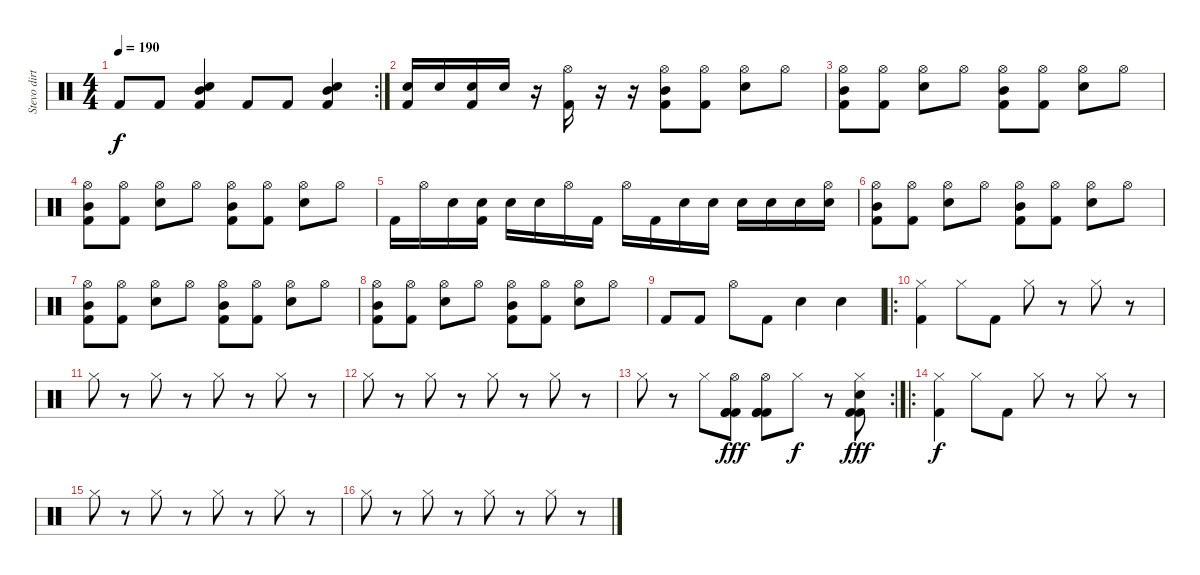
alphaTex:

\track ("Stevo dirty poo (drummer)" "Stevo dirt") {instrument percussion}
\staff {score}
\articulation defaults
\rc 2
\ts (4 4)
\tempo 190
\clef neutral
\ks c "Kick (hit) 2".8{dy f} "Kick (hit) 2".8
("Mid Tom (hit)" "Snare (hit) 2" "Kick (hit) 2").4 "Kick (hit) 2".8 "Kick (hit) 2".8 ("Mid Tom (hit)" "Snare (hit) 2" "Kick (hit) 2").4 |
("Snare (hit) 2" "Kick (hit) 2").16 "Snare (hit) 2".16 ("Snare (hit) 2" "Kick (hit) 2").16 "Snare (hit) 2".16 r.16 ("Hi-Hat (open)" "Kick (hit) 2").16 r.16 r.16 ("Mid Tom (hit)" "Hi-Hat (open)" "Kick (hit) 2").8 ("Hi-Hat (open)" "Kick (hit) 2").8 ("Snare (hit) 2" "Hi-Hat (open)").8 "Hi-Hat (open)".8 |
("Mid Tom (hit)" "Hi-Hat (open)" "Kick (hit) 2").8 ("Hi-Hat (open)" "Kick (hit) 2").8 ("Snare (hit) 2" "Hi-Hat (open)").8 "Hi-Hat (open)".8 ("Mid Tom (hit)" "Hi-Hat (open)" "Kick (hit) 2").8 ("Hi-Hat (open)" "Kick (hit) 2").8 ("Snare (hit) 2" "Hi-Hat (open)").8 "Hi-Hat (open)".8 |
("Mid Tom (hit)" "Hi-Hat (open)" "Kick (hit) 2").8 ("Hi-Hat (open)" "Kick (hit) 2").8 ("Snare (hit) 2" "Hi-Hat (open)").8 "Hi-Hat (open)".8 ("Mid Tom (hit)" "Hi-Hat (open)" "Kick (hit) 2").8 ("Hi-Hat (open)" "Kick (hit) 2").8 ("Snare (hit) 2" "Hi-Hat (open)").8 "Hi-Hat (open)".8 |
"Kick (hit) 2".16 "Hi-Hat (open)".16 "Snare (hit) 2".16 ("Snare (hit) 2" "Kick (hit) 2").16 "Snare (hit) 2".16 "Snare (hit) 2".16 "Hi-Hat (open)".16 "Kick (hit) 2".16 "Hi-Hat (open)".16 "Kick (hit) 2".16 "Snare (hit) 2".16 "Snare (hit) 2".16 "Snare (hit) 2".16 "Snare (hit) 2".16 "Snare (hit) 2".16 ("Snare (hit) 2" "Hi-Hat (open)").16 |
("Mid Tom (hit)" "Hi-Hat (open)" "Kick (hit) 2").8 ("Hi-Hat (open)" "Kick (hit) 2").8 ("Snare (hit) 2" "Hi-Hat (open)").8 "Hi-Hat (open)".8 ("Mid Tom (hit)" "Hi-Hat (open)" "Kick (hit) 2").8 ("Hi-Hat (open)" "Kick (hit) 2").8 ("Snare (hit) 2" "Hi-Hat (open)").8 "Hi-Hat (open)".8 |
("Mid Tom (hit)" "Hi-Hat (open)" "Kick (hit) 2").8 ("Hi-Hat (open)" "Kick (hit) 2").8 ("Snare (hit) 2" "Hi-Hat (open)").8 "Hi-Hat (open)".8 ("Mid Tom (hit)" "Hi-Hat (open)" "Kick (hit) 2").8 ("Hi-Hat (open)" "Kick (hit) 2").8 ("Snare (hit) 2" "Hi-Hat (open)").8 "Hi-Hat (open)".8 |
("Mid Tom (hit)" "Hi-Hat (open)" "Kick (hit) 2").8 ("Hi-Hat (open)" "Kick (hit) 2").8 ("Snare (hit) 2" "Hi-Hat (open)").8 "Hi-Hat (open)".8 ("Mid Tom (hit)" "Hi-Hat (open)" "Kick (hit) 2").8 ("Hi-Hat (open)" "Kick (hit) 2").8 ("Snare (hit) 2" "Hi-Hat (open)").8 "Hi-Hat (open)".8 |
"Kick (hit) 2".8 "Kick (hit) 2".8 "Hi-Hat (open)".8 "Kick (hit) 2".8 "Snare (hit) 2".4 "Snare (hit) 2".4 |
\ro
("Hi-Hat (closed)" "Kick (hit) 2").4 "Hi-Hat (closed)".8 "Kick (hit) 2".8 "Hi-Hat (closed)".8 r.8 "Hi-Hat (closed)".8 r.8 |
"Hi-Hat (closed)".8 r.8 "Hi-Hat (closed)".8 r.8 "Hi-Hat (closed)".8 r.8 "Hi-Hat (closed)".8 r.8 |
"Hi-Hat (closed)".8 r.8 "Hi-Hat (closed)".8 r.8 "Hi-Hat (closed)".8 r.8 "Hi-Hat (closed)".8 r.8 |
\rc 2 "Hi-Hat (closed)".8
r.8 "Hi-Hat (closed)".8 ("Kick (hit) 2" "Kick (hit) 2" "Hi-Hat (open)" "Kick (hit) 2").8{dy fff} ("Kick (hit) 2" "Kick (hit) 2" "Hi-Hat (open)" "Kick (hit) 2").8 "Hi-Hat (closed)".8{dy f} r.8 ("Snare (hit) 2" "Hi-Hat (closed)" "Kick (hit) 2" "Kick (hit) 2").8{dy fff} |
\ro
("Hi-Hat (closed)" "Kick (hit) 2").4{dy f} "Hi-Hat (closed)".8 "Kick (hit) 2".8 "Hi-Hat (closed)".8 r.8 "Hi-Hat (closed)".8 r.8 |
"Hi-Hat (closed)".8 r.8 "Hi-Hat (closed)".8 r.8 "Hi-Hat (closed)".8 r.8 "Hi-Hat (closed)".8 r.8 |
"Hi-Hat (closed)".8 r.8 "Hi-Hat (closed)".8 r.8 "Hi-Hat (closed)".8 r.8 "Hi-Hat (closed)".8 r.8
